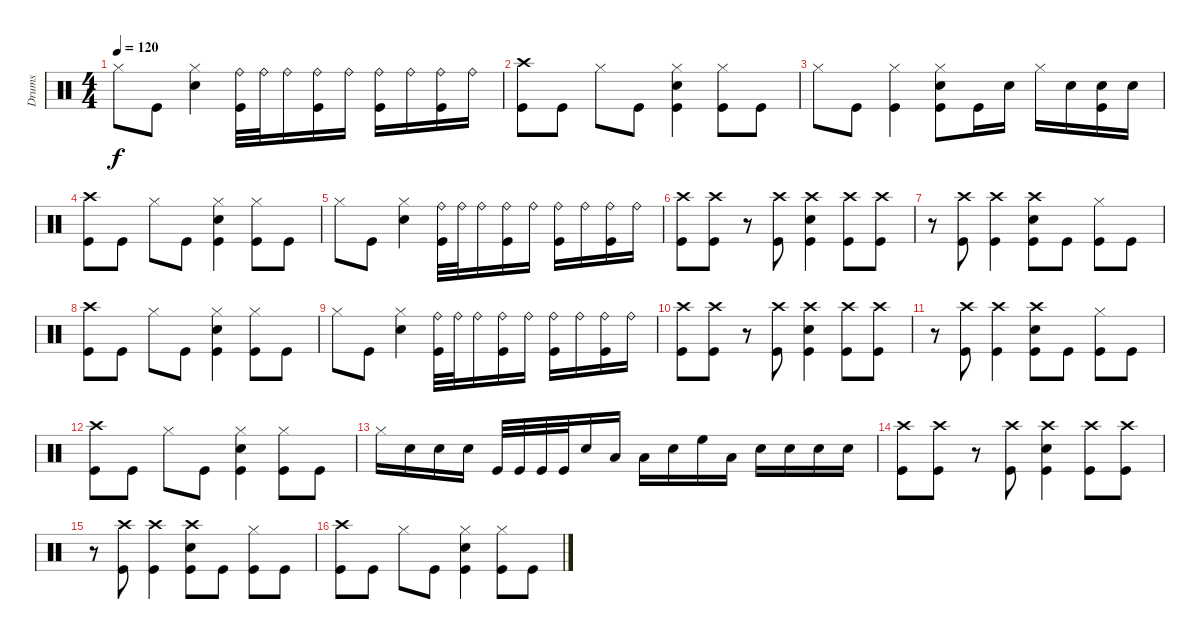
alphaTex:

\track ("Drums" "Drums") {instrument percussion}
\staff {score}
\articulation defaults
\ts (4 4)
\tempo 120
\clef neutral
\ks c "Hi-Hat (closed)".8{dy f} "Kick (hit)".8
("Snare (hit) 2" "Hi-Hat (closed)").4 ("Kick (hit)" "Ride (bell)").32 "Ride (bell)".32 "Ride (bell)".16 ("Kick (hit)" "Ride (bell)").16 "Ride (bell)".16 ("Kick (hit)" "Ride (bell)").16 "Ride (bell)".16 ("Kick (hit)" "Ride (bell)").16 "Ride (bell)".16 |
("Kick (hit)" "Crash high (hit)").8 "Kick (hit)".8 "Hi-Hat (closed)".8 "Kick (hit)".8 ("Kick (hit)" "Snare (hit) 2" "Hi-Hat (closed)").4 ("Kick (hit)" "Hi-Hat (closed)").8 "Kick (hit)".8 |
"Hi-Hat (closed)".8 "Kick (hit)".8 ("Hi-Hat (closed)" "Kick (hit)").4 ("Snare (hit) 2" "Hi-Hat (closed)" "Kick (hit)").8 "Kick (hit)".16 "Snare (hit) 2".16 "Hi-Hat (closed)".16 "Snare (hit) 2".16 ("Snare (hit) 2" "Kick (hit)").16 "Snare (hit) 2".16 |
("Crash high (hit)" "Kick (hit)").8 "Kick (hit)".8 "Hi-Hat (closed)".8 "Kick (hit)".8 ("Snare (hit) 2" "Hi-Hat (closed)" "Kick (hit)").4 ("Hi-Hat (closed)" "Kick (hit)").8 "Kick (hit)".8 |
"Hi-Hat (closed)".8 "Kick (hit)".8 ("Snare (hit) 2" "Hi-Hat (closed)").4 ("Kick (hit)" "Ride (bell)").32 "Ride (bell)".32 "Ride (bell)".16 ("Kick (hit)" "Ride (bell)").16 "Ride (bell)".16 ("Kick (hit)" "Ride (bell)").16 "Ride (bell)".16 ("Kick (hit)" "Ride (bell)").16 "Ride (bell)".16 |
("Kick (hit)" "Crash high (hit)").8 ("Kick (hit)" "Crash high (hit)").8 r.8 ("Kick (hit)" "Crash high (hit)").8 ("Kick (hit)" "Snare (hit) 2" "Crash high (hit)").4 ("Kick (hit)" "Crash high (hit)").8 ("Kick (hit)" "Crash high (hit)").8 |
r.8 ("Kick (hit)" "Crash high (hit)").8 ("Kick (hit)" "Crash high (hit)").4 ("Kick (hit)" "Snare (hit) 2" "Crash high (hit)").8 "Kick (hit)".8 ("Kick (hit)" "Hi-Hat (closed)").8 "Kick (hit)".8 |
("Crash high (hit)" "Kick (hit)").8 "Kick (hit)".8 "Hi-Hat (closed)".8 "Kick (hit)".8 ("Snare (hit) 2" "Hi-Hat (closed)" "Kick (hit)").4 ("Hi-Hat (closed)" "Kick (hit)").8 "Kick (hit)".8 |
"Hi-Hat (closed)".8 "Kick (hit)".8 ("Snare (hit) 2" "Hi-Hat (closed)").4 ("Kick (hit)" "Ride (bell)").32 "Ride (bell)".32 "Ride (bell)".16 ("Kick (hit)" "Ride (bell)").16 "Ride (bell)".16 ("Kick (hit)" "Ride (bell)").16 "Ride (bell)".16 ("Kick (hit)" "Ride (bell)").16 "Ride (bell)".16 |
("Crash high (hit)" "Kick (hit)").8 ("Crash high (hit)" "Kick (hit)").8 r.8 ("Crash high (hit)" "Kick (hit)").8 ("Snare (hit) 2" "Crash high (hit)" "Kick (hit)").4 ("Crash high (hit)" "Kick (hit)").8 ("Crash high (hit)" "Kick (hit)").8 |
r.8 ("Crash high (hit)" "Kick (hit)").8 ("Crash high (hit)" "Kick (hit)").4 ("Snare (hit) 2" "Crash high (hit)" "Kick (hit)").8 "Kick (hit)".8 ("Hi-Hat (closed)" "Kick (hit)").8 "Kick (hit)".8 |
("Kick (hit)" "Crash high (hit)").8 "Kick (hit)".8 "Hi-Hat (closed)".8 "Kick (hit)".8 ("Kick (hit)" "Snare (hit) 2" "Hi-Hat (closed)").4 ("Kick (hit)" "Hi-Hat (closed)").8 "Kick (hit)".8 |
"Hi-Hat (closed)".16 "Snare (hit) 2".16 "Snare (hit) 2".16 "Snare (hit) 2".16 "Kick (hit)".32 "Kick (hit)".32 "Kick (hit)".32 "Kick (hit)".32 "Snare (hit) 2".16 "Low Floor Tom (hit)".16 "Low Tom (hit)".16 "Snare (hit) 2".16 "High Floor Tom (hit)".16 "Low Tom (hit)".16 "Snare (hit) 2".16 "Snare (hit) 2".16 "Snare (hit) 2".16 "Snare (hit) 2".16 |
("Kick (hit)" "Crash high (hit)").8 ("Kick (hit)" "Crash high (hit)").8 r.8 ("Kick (hit)" "Crash high (hit)").8 ("Kick (hit)" "Snare (hit) 2" "Crash high (hit)").4 ("Kick (hit)" "Crash high (hit)").8 ("Kick (hit)" "Crash high (hit)").8 |
r.8 ("Kick (hit)" "Crash high (hit)").8 ("Kick (hit)" "Crash high (hit)").4 ("Kick (hit)" "Snare (hit) 2" "Crash high (hit)").8 "Kick (hit)".8 ("Kick (hit)" "Hi-Hat (closed)").8 "Kick (hit)".8 |
("Crash high (hit)" "Kick (hit)").8 "Kick (hit)".8 "Hi-Hat (closed)".8 "Kick (hit)".8 ("Snare (hit) 2" "Hi-Hat (closed)" "Kick (hit)").4 ("Hi-Hat (closed)" "Kick (hit)").8 "Kick (hit)".8
